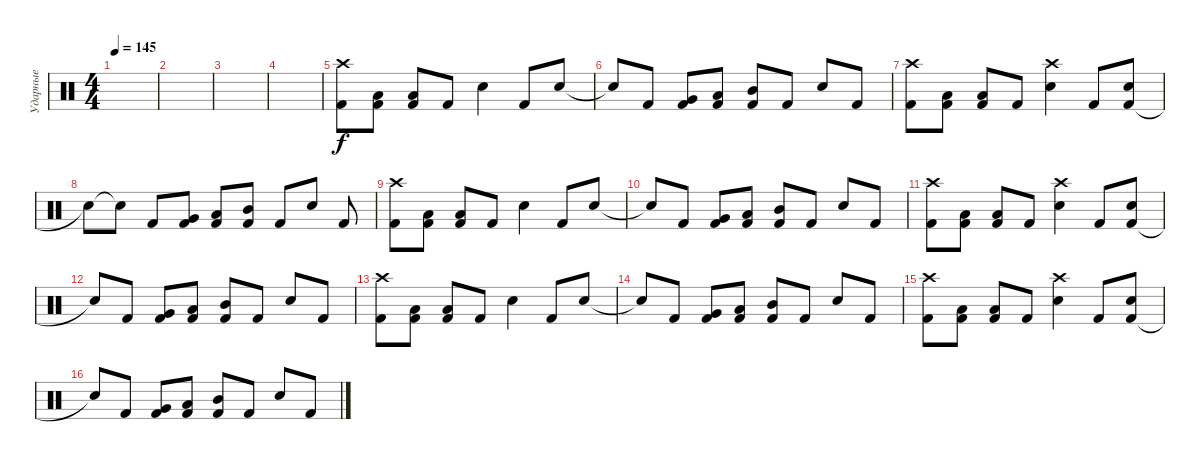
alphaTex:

\track ("Ударные" "Ударные") {instrument percussion}
\staff {score}
\articulation defaults
\ts (4 4)
\tempo 145
\clef neutral
\ks c
|
|
|
|
("Kick (hit) 2" "Crash high (hit)").8 ("Kick (hit) 2" "Low Tom (hit)").8 ("Kick (hit) 2" "Low Floor Tom (hit)").8 "Kick (hit) 2".8 "Electric Snare (hit)".4 "Kick (hit) 2".8 "Electric Snare (hit)".8 |
"Hand Clap (hit)"{t}.8 "Kick (hit) 2".8 ("Kick (hit) 2" "Very Low Tom (hit)").8 ("Kick (hit) 2" "Low Tom (hit)").8 ("Kick (hit) 2" "Mid Tom (hit)").8 "Kick (hit) 2".8 "Electric Snare (hit)".8 "Kick (hit) 2".8 |
("Kick (hit) 2" "Crash high (hit)").8 ("Kick (hit) 2" "Low Tom (hit)").8 ("Kick (hit) 2" "Low Floor Tom (hit)").8 "Kick (hit) 2".8 ("Electric Snare (hit)" "Crash high (hit)").4 "Kick (hit) 2".8 ("Kick (hit) 2" "Electric Snare (hit)").8 |
"Electric Snare (hit)"{t}.8 "Hand Clap (hit)"{t}.8 "Kick (hit) 2".8 ("Kick (hit) 2" "Very Low Tom (hit)").8 ("Kick (hit) 2" "Low Tom (hit)").8 ("Kick (hit) 2" "Mid Tom (hit)").8 "Kick (hit) 2".8 "Electric Snare (hit)".8 "Kick (hit) 2".8 |
("Kick (hit) 2" "Crash high (hit)").8 ("Kick (hit) 2" "Low Tom (hit)").8 ("Kick (hit) 2" "Low Floor Tom (hit)").8 "Kick (hit) 2".8 "Electric Snare (hit)".4 "Kick (hit) 2".8 "Electric Snare (hit)".8 |
"Hand Clap (hit)"{t}.8 "Kick (hit) 2".8 ("Kick (hit) 2" "Very Low Tom (hit)").8 ("Kick (hit) 2" "Low Tom (hit)").8 ("Kick (hit) 2" "Mid Tom (hit)").8 "Kick (hit) 2".8 "Electric Snare (hit)".8 "Kick (hit) 2".8 |
("Kick (hit) 2" "Crash high (hit)").8 ("Kick (hit) 2" "Low Tom (hit)").8 ("Kick (hit) 2" "Low Floor Tom (hit)").8 "Kick (hit) 2".8 ("Electric Snare (hit)" "Crash high (hit)").4 "Kick (hit) 2".8 ("Kick (hit) 2" "Electric Snare (hit)").8 |
"Hand Clap (hit)"{t}.8 "Kick (hit) 2".8 ("Kick (hit) 2" "Very Low Tom (hit)").8 ("Kick (hit) 2" "Low Tom (hit)").8 ("Kick (hit) 2" "Mid Tom (hit)").8 "Kick (hit) 2".8 "Electric Snare (hit)".8 "Kick (hit) 2".8 |
("Kick (hit) 2" "Crash high (hit)").8 ("Kick (hit) 2" "Low Tom (hit)").8 ("Kick (hit) 2" "Low Floor Tom (hit)").8 "Kick (hit) 2".8 "Electric Snare (hit)".4 "Kick (hit) 2".8 "Electric Snare (hit)".8 |
"Hand Clap (hit)"{t}.8 "Kick (hit) 2".8 ("Kick (hit) 2" "Very Low Tom (hit)").8 ("Kick (hit) 2" "Low Tom (hit)").8 ("Kick (hit) 2" "Mid Tom (hit)").8 "Kick (hit) 2".8 "Electric Snare (hit)".8 "Kick (hit) 2".8 |
("Kick (hit) 2" "Crash high (hit)").8 ("Kick (hit) 2" "Low Tom (hit)").8 ("Kick (hit) 2" "Low Floor Tom (hit)").8 "Kick (hit) 2".8 ("Electric Snare (hit)" "Crash high (hit)").4 "Kick (hit) 2".8 ("Kick (hit) 2" "Electric Snare (hit)").8 |
"Hand Clap (hit)"{t}.8 "Kick (hit) 2".8 ("Kick (hit) 2" "Very Low Tom (hit)").8 ("Kick (hit) 2" "Low Tom (hit)").8 ("Kick (hit) 2" "Mid Tom (hit)").8 "Kick (hit) 2".8 "Electric Snare (hit)".8 "Kick (hit) 2".8
